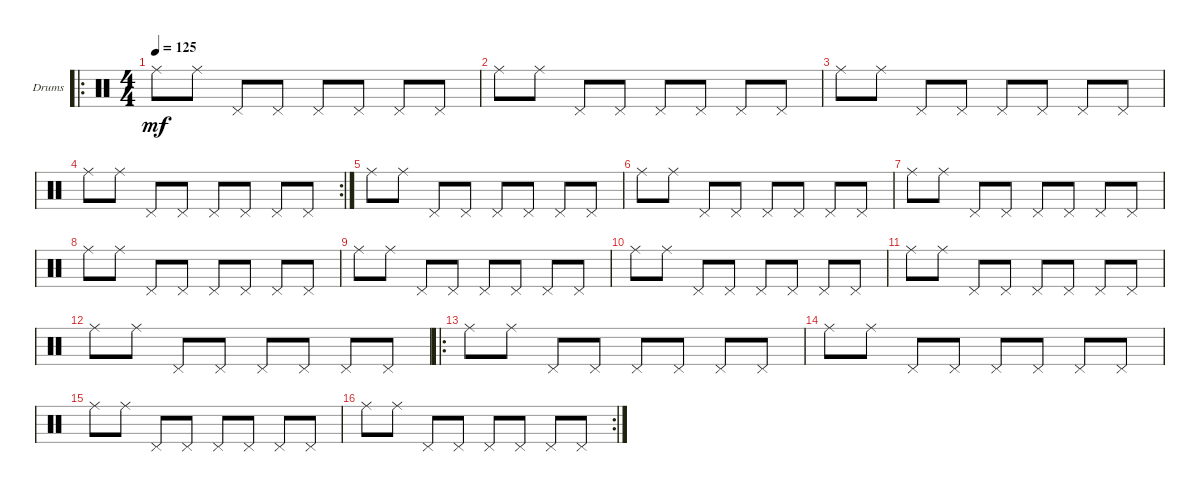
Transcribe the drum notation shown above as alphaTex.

\defaultSystemsLayout 4
\bracketExtendMode groupsimilarinstruments
\firstSystemTrackNameOrientation horizontal
\otherSystemsTrackNameOrientation horizontal
\track ("Drumkit" "Drums") {instrument percussion}
\staff {score}
\articulation defaults
\ro
\ts (4 4)
\tempo 125
\clef neutral
\ks c "Ride (middle)".8{dy mf} "Ride (middle)".8 "Pedal Hi-Hat (hit)".8 "Pedal Hi-Hat (hit)".8 "Pedal Hi-Hat (hit)".8 "Pedal Hi-Hat (hit)".8 "Pedal Hi-Hat (hit)".8 "Pedal Hi-Hat (hit)".8
|
"Ride (middle)".8 "Ride (middle)".8 "Pedal Hi-Hat (hit)".8 "Pedal Hi-Hat (hit)".8 "Pedal Hi-Hat (hit)".8 "Pedal Hi-Hat (hit)".8 "Pedal Hi-Hat (hit)".8 "Pedal Hi-Hat (hit)".8 |
"Ride (middle)".8 "Ride (middle)".8 "Pedal Hi-Hat (hit)".8 "Pedal Hi-Hat (hit)".8 "Pedal Hi-Hat (hit)".8 "Pedal Hi-Hat (hit)".8 "Pedal Hi-Hat (hit)".8 "Pedal Hi-Hat (hit)".8 |
\rc 2 "Ride (middle)".8 "Ride (middle)".8 "Pedal Hi-Hat (hit)".8 "Pedal Hi-Hat (hit)".8 "Pedal Hi-Hat (hit)".8 "Pedal Hi-Hat (hit)".8 "Pedal Hi-Hat (hit)".8 "Pedal Hi-Hat (hit)".8
|
"Ride (middle)".8 "Ride (middle)".8 "Pedal Hi-Hat (hit)".8 "Pedal Hi-Hat (hit)".8 "Pedal Hi-Hat (hit)".8 "Pedal Hi-Hat (hit)".8 "Pedal Hi-Hat (hit)".8 "Pedal Hi-Hat (hit)".8 |
"Ride (middle)".8 "Ride (middle)".8 "Pedal Hi-Hat (hit)".8 "Pedal Hi-Hat (hit)".8 "Pedal Hi-Hat (hit)".8 "Pedal Hi-Hat (hit)".8 "Pedal Hi-Hat (hit)".8 "Pedal Hi-Hat (hit)".8 |
"Ride (middle)".8 "Ride (middle)".8 "Pedal Hi-Hat (hit)".8 "Pedal Hi-Hat (hit)".8 "Pedal Hi-Hat (hit)".8 "Pedal Hi-Hat (hit)".8 "Pedal Hi-Hat (hit)".8 "Pedal Hi-Hat (hit)".8 |
"Ride (middle)".8 "Ride (middle)".8 "Pedal Hi-Hat (hit)".8 "Pedal Hi-Hat (hit)".8 "Pedal Hi-Hat (hit)".8 "Pedal Hi-Hat (hit)".8 "Pedal Hi-Hat (hit)".8 "Pedal Hi-Hat (hit)".8 |
"Ride (middle)".8 "Ride (middle)".8 "Pedal Hi-Hat (hit)".8 "Pedal Hi-Hat (hit)".8 "Pedal Hi-Hat (hit)".8 "Pedal Hi-Hat (hit)".8 "Pedal Hi-Hat (hit)".8 "Pedal Hi-Hat (hit)".8 |
"Ride (middle)".8 "Ride (middle)".8 "Pedal Hi-Hat (hit)".8 "Pedal Hi-Hat (hit)".8 "Pedal Hi-Hat (hit)".8 "Pedal Hi-Hat (hit)".8 "Pedal Hi-Hat (hit)".8 "Pedal Hi-Hat (hit)".8 |
"Ride (middle)".8 "Ride (middle)".8 "Pedal Hi-Hat (hit)".8 "Pedal Hi-Hat (hit)".8 "Pedal Hi-Hat (hit)".8 "Pedal Hi-Hat (hit)".8 "Pedal Hi-Hat (hit)".8 "Pedal Hi-Hat (hit)".8 |
"Ride (middle)".8 "Ride (middle)".8 "Pedal Hi-Hat (hit)".8 "Pedal Hi-Hat (hit)".8 "Pedal Hi-Hat (hit)".8 "Pedal Hi-Hat (hit)".8 "Pedal Hi-Hat (hit)".8 "Pedal Hi-Hat (hit)".8 |
\ro "Ride (middle)".8 "Ride (middle)".8 "Pedal Hi-Hat (hit)".8 "Pedal Hi-Hat (hit)".8 "Pedal Hi-Hat (hit)".8 "Pedal Hi-Hat (hit)".8 "Pedal Hi-Hat (hit)".8 "Pedal Hi-Hat (hit)".8
|
"Ride (middle)".8 "Ride (middle)".8 "Pedal Hi-Hat (hit)".8 "Pedal Hi-Hat (hit)".8 "Pedal Hi-Hat (hit)".8 "Pedal Hi-Hat (hit)".8 "Pedal Hi-Hat (hit)".8 "Pedal Hi-Hat (hit)".8 |
"Ride (middle)".8 "Ride (middle)".8 "Pedal Hi-Hat (hit)".8 "Pedal Hi-Hat (hit)".8 "Pedal Hi-Hat (hit)".8 "Pedal Hi-Hat (hit)".8 "Pedal Hi-Hat (hit)".8 "Pedal Hi-Hat (hit)".8 |
\rc 2 "Ride (middle)".8 "Ride (middle)".8 "Pedal Hi-Hat (hit)".8 "Pedal Hi-Hat (hit)".8 "Pedal Hi-Hat (hit)".8 "Pedal Hi-Hat (hit)".8 "Pedal Hi-Hat (hit)".8 "Pedal Hi-Hat (hit)".8
